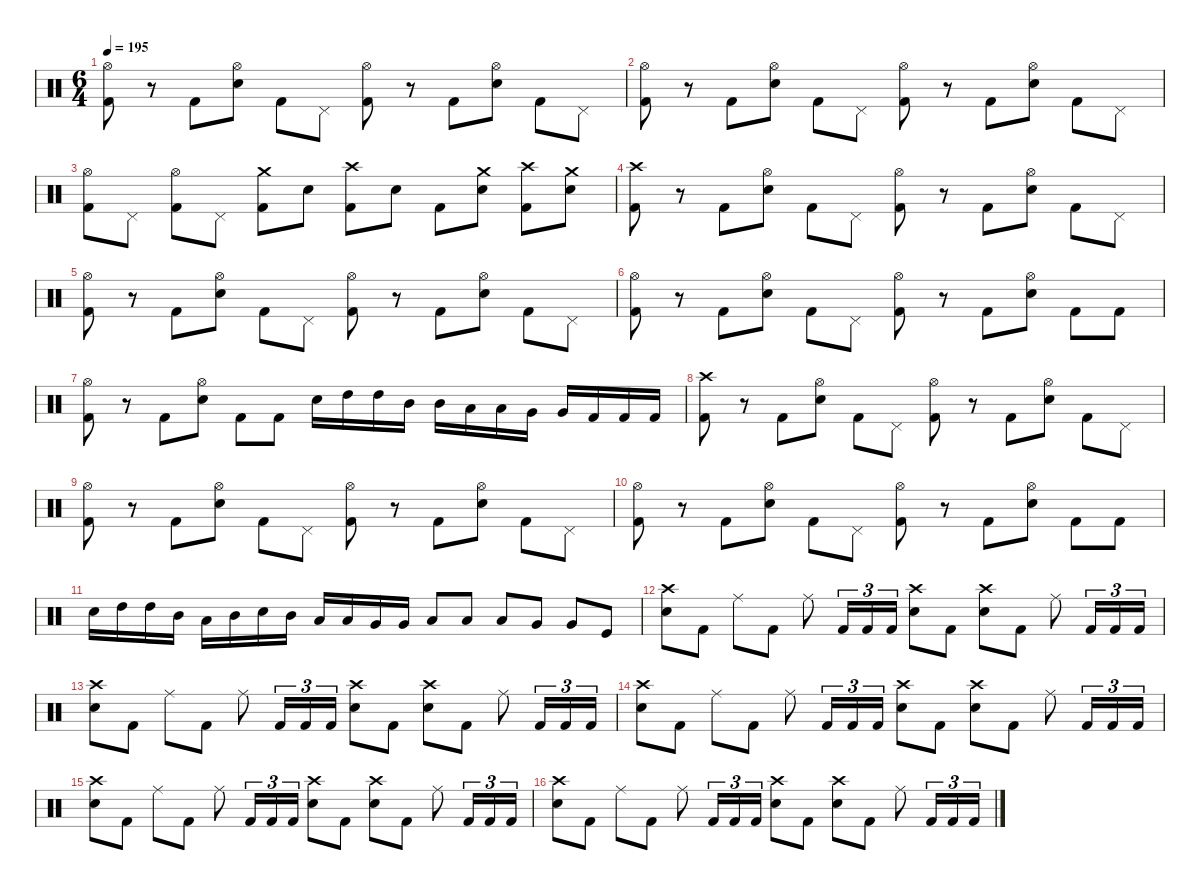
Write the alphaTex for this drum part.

\defaultSystemsLayout 4
\hideDynamics
\bracketExtendMode nobrackets
\singleTrackTrackNamePolicy hidden
\multiTrackTrackNamePolicy hidden
\firstSystemTrackNameMode fullname
\firstSystemTrackNameOrientation horizontal
\otherSystemsTrackNameOrientation horizontal
\track ("Drums" "drm.") {instrument percussion}
\staff {score}
\articulation defaults
\ts (6 4)
\tempo 195
\clef neutral
\ks c
("Hi-Hat (open)" "Kick (hit) 2").8{dy f beam Down} r.8{beam Down} "Kick (hit) 2".8{beam Down} ("Hi-Hat (open)" "Snare (hit) 2").8{beam Down} "Kick (hit) 2".8{beam Down} "Pedal Hi-Hat (hit)".8{beam Down} ("Hi-Hat (open)" "Kick (hit) 2").8{beam Down} r.8{beam Down} "Kick (hit) 2".8{beam Down} ("Hi-Hat (open)" "Snare (hit) 2").8{beam Down} "Kick (hit) 2".8{beam Down} "Pedal Hi-Hat (hit)".8{beam Down} |
("Hi-Hat (open)" "Kick (hit) 2").8{beam Down} r.8{beam Down} "Kick (hit) 2".8{beam Down} ("Hi-Hat (open)" "Snare (hit) 2").8{beam Down} "Kick (hit) 2".8{beam Down} "Pedal Hi-Hat (hit)".8{beam Down} ("Hi-Hat (open)" "Kick (hit) 2").8{beam Down} r.8{beam Down} "Kick (hit) 2".8{beam Down} ("Hi-Hat (open)" "Snare (hit) 2").8{beam Down} "Kick (hit) 2".8{beam Down} "Pedal Hi-Hat (hit)".8{beam Down} |
("Hi-Hat (open)" "Kick (hit) 2").8{beam Down} "Pedal Hi-Hat (hit)".8{beam Down} ("Hi-Hat (open)" "Kick (hit) 2").8{beam Down} "Pedal Hi-Hat (hit)".8{beam Down} ("Crash medium (hit)" "Kick (hit) 2").8{beam Down} "Snare (hit) 2".8{beam Down} ("Crash high (hit)" "Kick (hit) 2").8{beam Down} "Snare (hit) 2".8{beam Down} "Kick (hit) 2".8{beam Down} ("Crash medium (hit)" "Snare (hit) 2").8{beam Down} ("Crash high (hit)" "Kick (hit) 2").8{beam Down} ("Crash medium (hit)" "Snare (hit) 2").8{beam Down} |
("Crash high (hit)" "Kick (hit) 2").8{beam Down} r.8{beam Down} "Kick (hit) 2".8{beam Down} ("Hi-Hat (open)" "Snare (hit) 2").8{beam Down} "Kick (hit) 2".8{beam Down} "Pedal Hi-Hat (hit)".8{beam Down} ("Hi-Hat (open)" "Kick (hit) 2").8{beam Down} r.8{beam Down} "Kick (hit) 2".8{beam Down} ("Hi-Hat (open)" "Snare (hit) 2").8{beam Down} "Kick (hit) 2".8{beam Down} "Pedal Hi-Hat (hit)".8{beam Down} |
("Hi-Hat (open)" "Kick (hit) 2").8{beam Down} r.8{beam Down} "Kick (hit) 2".8{beam Down} ("Hi-Hat (open)" "Snare (hit) 2").8{beam Down} "Kick (hit) 2".8{beam Down} "Pedal Hi-Hat (hit)".8{beam Down} ("Hi-Hat (open)" "Kick (hit) 2").8{beam Down} r.8{beam Down} "Kick (hit) 2".8{beam Down} ("Hi-Hat (open)" "Snare (hit) 2").8{beam Down} "Kick (hit) 2".8{beam Down} "Pedal Hi-Hat (hit)".8{beam Down} |
("Hi-Hat (open)" "Kick (hit) 2").8{beam Down} r.8{beam Down} "Kick (hit) 2".8{beam Down} ("Hi-Hat (open)" "Snare (hit) 2").8{beam Down} "Kick (hit) 2".8{beam Down} "Pedal Hi-Hat (hit)".8{beam Down} ("Hi-Hat (open)" "Kick (hit) 2").8{beam Down} r.8{beam Down} "Kick (hit) 2".8{beam Down} ("Hi-Hat (open)" "Snare (hit) 2").8{beam Down} "Kick (hit) 2".8{beam Down} "Kick (hit) 2".8{beam Down} |
("Hi-Hat (open)" "Kick (hit) 2").8{beam Down} r.8{beam Down} "Kick (hit) 2".8{beam Down} ("Hi-Hat (open)" "Snare (hit) 2").8{beam Down} "Kick (hit) 2".8{beam Down} "Kick (hit) 2".8{beam Down} "Snare (hit) 2".16{beam Down} "High Tom (hit)".16{beam Down} "High Tom (hit)".16{beam Down} "Mid Tom (hit)".16{beam Down} "Mid Tom (hit)".16{beam Down} "Low Tom (hit)".16{beam Down} "Low Tom (hit)".16{beam Up} "Very Low Tom (hit)".16{beam Up} "Very Low Tom (hit)".16{beam Up} "Kick (hit) 2".16{beam Up} "Kick (hit) 2".16{beam Up} "Kick (hit) 2".16{beam Up} |
("Crash high (hit)" "Kick (hit) 2").8{beam Down} r.8{beam Down} "Kick (hit) 2".8{beam Down} ("Hi-Hat (open)" "Snare (hit) 2").8{beam Down} "Kick (hit) 2".8{beam Down} "Pedal Hi-Hat (hit)".8{beam Down} ("Hi-Hat (open)" "Kick (hit) 2").8{beam Down} r.8{beam Down} "Kick (hit) 2".8{beam Down} ("Hi-Hat (open)" "Snare (hit) 2").8{beam Down} "Kick (hit) 2".8{beam Down} "Pedal Hi-Hat (hit)".8{beam Down} |
("Hi-Hat (open)" "Kick (hit) 2").8{beam Down} r.8{beam Down} "Kick (hit) 2".8{beam Down} ("Hi-Hat (open)" "Snare (hit) 2").8{beam Down} "Kick (hit) 2".8{beam Down} "Pedal Hi-Hat (hit)".8{beam Down} ("Hi-Hat (open)" "Kick (hit) 2").8{beam Down} r.8{beam Down} "Kick (hit) 2".8{beam Down} ("Hi-Hat (open)" "Snare (hit) 2").8{beam Down} "Kick (hit) 2".8{beam Down} "Pedal Hi-Hat (hit)".8{beam Down} |
("Hi-Hat (open)" "Kick (hit) 2").8{beam Down} r.8{beam Down} "Kick (hit) 2".8{beam Down} ("Hi-Hat (open)" "Snare (hit) 2").8{beam Down} "Kick (hit) 2".8{beam Down} "Pedal Hi-Hat (hit)".8{beam Down} ("Hi-Hat (open)" "Kick (hit) 2").8{beam Down} r.8{beam Down} "Kick (hit) 2".8{beam Down} ("Hi-Hat (open)" "Snare (hit) 2").8{beam Down} "Kick (hit) 2".8{beam Down} "Kick (hit) 2".8{beam Down} |
"Snare (hit) 2".16{beam Down} "High Tom (hit)".16{beam Down} "High Tom (hit)".16{beam Down} "Mid Tom (hit)".16{beam Down} "Low Tom (hit)".16{beam Down} "Mid Tom (hit)".16{beam Down} "Snare (hit) 2".16{beam Up} "Mid Tom (hit)".16{beam Up} "Low Tom (hit)".16{beam Up} "Low Tom (hit)".16{beam Up} "Very Low Tom (hit)".16{beam Up} "Very Low Tom (hit)".16{beam Up} "Low Tom (hit)".8{beam Up} "Low Tom (hit)".8{beam Up} "Low Tom (hit)".8{beam Up} "Very Low Tom (hit)".8{beam Up} "Very Low Tom (hit)".8{beam Up} "Kick (hit)".8{beam Up} |
("Crash high (hit)" "Snare (hit) 2").8{beam Down} "Kick (hit) 2".8{beam Down} "Ride (middle)".8{beam Down} "Kick (hit) 2".8{beam Down} "Ride (middle)".8{beam Down} "Kick (hit) 2".16{tu (3 2) beam Up} "Kick (hit) 2".16{tu (3 2) beam Up} "Kick (hit) 2".16{tu (3 2) beam Up} ("Crash high (hit)" "Snare (hit) 2").8{beam Down} "Kick (hit) 2".8{beam Down} ("Crash high (hit)" "Snare (hit) 2").8{beam Down} "Kick (hit) 2".8{beam Down} "Ride (middle)".8{beam Down} "Kick (hit) 2".16{tu (3 2) beam Up} "Kick (hit) 2".16{tu (3 2) beam Up} "Kick (hit) 2".16{tu (3 2) beam Up} |
("Crash high (hit)" "Snare (hit) 2").8{beam Down} "Kick (hit) 2".8{beam Down} "Ride (middle)".8{beam Down} "Kick (hit) 2".8{beam Down} "Ride (middle)".8{beam Down} "Kick (hit) 2".16{tu (3 2) beam Up} "Kick (hit) 2".16{tu (3 2) beam Up} "Kick (hit) 2".16{tu (3 2) beam Up} ("Crash high (hit)" "Snare (hit) 2").8{beam Down} "Kick (hit) 2".8{beam Down} ("Crash high (hit)" "Snare (hit) 2").8{beam Down} "Kick (hit) 2".8{beam Down} "Ride (middle)".8{beam Down} "Kick (hit) 2".16{tu (3 2) beam Up} "Kick (hit) 2".16{tu (3 2) beam Up} "Kick (hit) 2".16{tu (3 2) beam Up} |
("Crash high (hit)" "Snare (hit) 2").8{beam Down} "Kick (hit) 2".8{beam Down} "Ride (middle)".8{beam Down} "Kick (hit) 2".8{beam Down} "Ride (middle)".8{beam Down} "Kick (hit) 2".16{tu (3 2) beam Up} "Kick (hit) 2".16{tu (3 2) beam Up} "Kick (hit) 2".16{tu (3 2) beam Up} ("Crash high (hit)" "Snare (hit) 2").8{beam Down} "Kick (hit) 2".8{beam Down} ("Crash high (hit)" "Snare (hit) 2").8{beam Down} "Kick (hit) 2".8{beam Down} "Ride (middle)".8{beam Down} "Kick (hit) 2".16{tu (3 2) beam Up} "Kick (hit) 2".16{tu (3 2) beam Up} "Kick (hit) 2".16{tu (3 2) beam Up} |
("Crash high (hit)" "Snare (hit) 2").8{beam Down} "Kick (hit) 2".8{beam Down} "Ride (middle)".8{beam Down} "Kick (hit) 2".8{beam Down} "Ride (middle)".8{beam Down} "Kick (hit) 2".16{tu (3 2) beam Up} "Kick (hit) 2".16{tu (3 2) beam Up} "Kick (hit) 2".16{tu (3 2) beam Up} ("Crash high (hit)" "Snare (hit) 2").8{beam Down} "Kick (hit) 2".8{beam Down} ("Crash high (hit)" "Snare (hit) 2").8{beam Down} "Kick (hit) 2".8{beam Down} "Ride (middle)".8{beam Down} "Kick (hit) 2".16{tu (3 2) beam Up} "Kick (hit) 2".16{tu (3 2) beam Up} "Kick (hit) 2".16{tu (3 2) beam Up} |
("Crash high (hit)" "Snare (hit) 2").8{beam Down} "Kick (hit) 2".8{beam Down} "Ride (middle)".8{beam Down} "Kick (hit) 2".8{beam Down} "Ride (middle)".8{beam Down} "Kick (hit) 2".16{tu (3 2) beam Up} "Kick (hit) 2".16{tu (3 2) beam Up} "Kick (hit) 2".16{tu (3 2) beam Up} ("Crash high (hit)" "Snare (hit) 2").8{beam Down} "Kick (hit) 2".8{beam Down} ("Crash high (hit)" "Snare (hit) 2").8{beam Down} "Kick (hit) 2".8{beam Down} "Ride (middle)".8{beam Down} "Kick (hit) 2".16{tu (3 2) beam Up} "Kick (hit) 2".16{tu (3 2) beam Up} "Kick (hit) 2".16{tu (3 2) beam Up}
